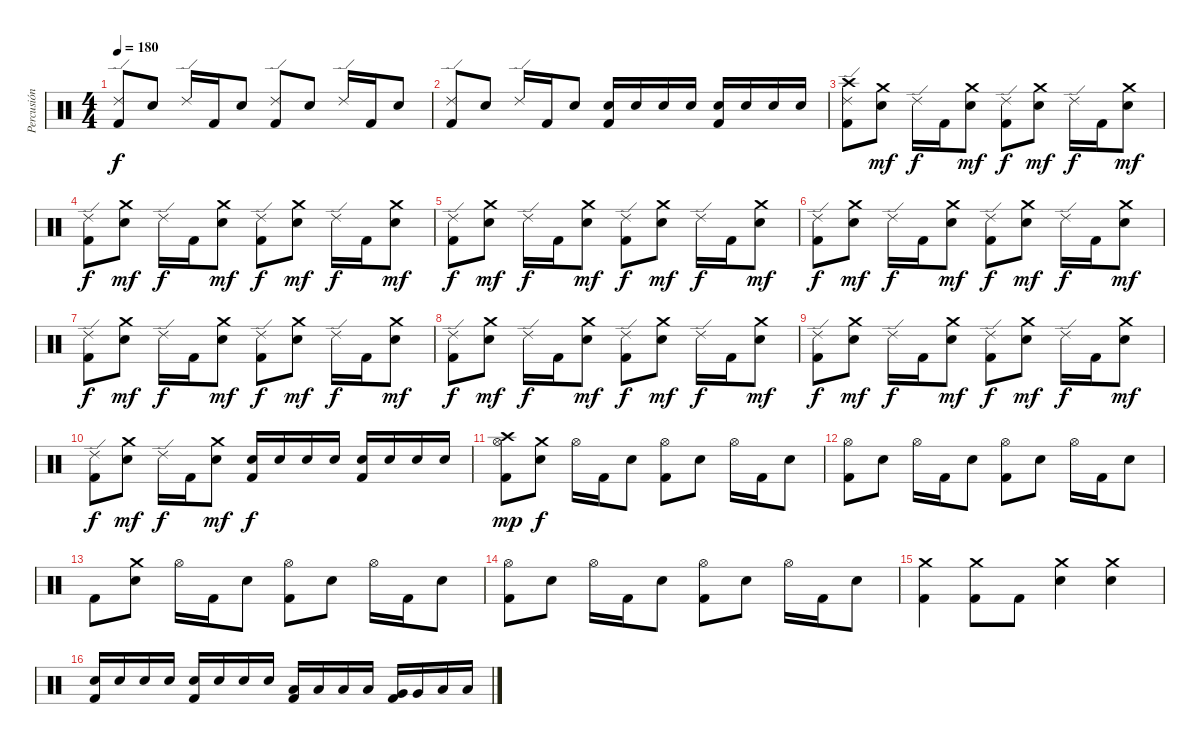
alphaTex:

\track ("Percusión" "Percusión") {instrument percussion}
\staff {score}
\articulation defaults
\ts (4 4)
\tempo 180
\clef neutral
\ks c
("Ride (edge) 2" "Kick (hit) 2").8{dy f} "Electric Snare (hit)".8 "Ride (edge) 2".16 "Kick (hit) 2".16 "Electric Snare (hit)".8 ("Ride (edge) 2" "Kick (hit) 2").8 "Electric Snare (hit)".8 "Ride (edge) 2".16 "Kick (hit) 2".16 "Electric Snare (hit)".8 |
("Ride (edge) 2" "Kick (hit) 2").8 "Electric Snare (hit)".8 "Ride (edge) 2".16 "Kick (hit) 2".16 "Electric Snare (hit)".8 ("Electric Snare (hit)" "Kick (hit) 2").16 "Electric Snare (hit)".16 "Electric Snare (hit)".16 "Electric Snare (hit)".16 ("Electric Snare (hit)" "Kick (hit) 2").16 "Electric Snare (hit)".16 "Electric Snare (hit)".16 "Electric Snare (hit)".16 |
("Crash high (hit)" "Ride (edge) 2" "Kick (hit) 2").8 ("Crash medium (hit)" "Electric Snare (hit)").8{dy mf} "Ride (edge) 2".16{dy f} "Kick (hit) 2".16 ("Crash medium (hit)" "Electric Snare (hit)").8{dy mf} ("Ride (edge) 2" "Kick (hit) 2").8{dy f} ("Crash medium (hit)" "Electric Snare (hit)").8{dy mf} "Ride (edge) 2".16{dy f} "Kick (hit) 2".16 ("Crash medium (hit)" "Electric Snare (hit)").8{dy mf} |
("Ride (edge) 2" "Kick (hit) 2").8{dy f} ("Crash medium (hit)" "Electric Snare (hit)").8{dy mf} "Ride (edge) 2".16{dy f} "Kick (hit) 2".16 ("Crash medium (hit)" "Electric Snare (hit)").8{dy mf} ("Ride (edge) 2" "Kick (hit) 2").8{dy f} ("Crash medium (hit)" "Electric Snare (hit)").8{dy mf} "Ride (edge) 2".16{dy f} "Kick (hit) 2".16 ("Crash medium (hit)" "Electric Snare (hit)").8{dy mf} |
("Ride (edge) 2" "Kick (hit) 2").8{dy f} ("Crash medium (hit)" "Electric Snare (hit)").8{dy mf} "Ride (edge) 2".16{dy f} "Kick (hit) 2".16 ("Crash medium (hit)" "Electric Snare (hit)").8{dy mf} ("Ride (edge) 2" "Kick (hit) 2").8{dy f} ("Crash medium (hit)" "Electric Snare (hit)").8{dy mf} "Ride (edge) 2".16{dy f} "Kick (hit) 2".16 ("Crash medium (hit)" "Electric Snare (hit)").8{dy mf} |
("Ride (edge) 2" "Kick (hit) 2").8{dy f} ("Crash medium (hit)" "Electric Snare (hit)").8{dy mf} "Ride (edge) 2".16{dy f} "Kick (hit) 2".16 ("Crash medium (hit)" "Electric Snare (hit)").8{dy mf} ("Ride (edge) 2" "Kick (hit) 2").8{dy f} ("Crash medium (hit)" "Electric Snare (hit)").8{dy mf} "Ride (edge) 2".16{dy f} "Kick (hit) 2".16 ("Crash medium (hit)" "Electric Snare (hit)").8{dy mf} |
("Ride (edge) 2" "Kick (hit) 2").8{dy f} ("Crash medium (hit)" "Electric Snare (hit)").8{dy mf} "Ride (edge) 2".16{dy f} "Kick (hit) 2".16 ("Crash medium (hit)" "Electric Snare (hit)").8{dy mf} ("Ride (edge) 2" "Kick (hit) 2").8{dy f} ("Crash medium (hit)" "Electric Snare (hit)").8{dy mf} "Ride (edge) 2".16{dy f} "Kick (hit) 2".16 ("Crash medium (hit)" "Electric Snare (hit)").8{dy mf} |
("Ride (edge) 2" "Kick (hit) 2").8{dy f} ("Crash medium (hit)" "Electric Snare (hit)").8{dy mf} "Ride (edge) 2".16{dy f} "Kick (hit) 2".16 ("Crash medium (hit)" "Electric Snare (hit)").8{dy mf} ("Ride (edge) 2" "Kick (hit) 2").8{dy f} ("Crash medium (hit)" "Electric Snare (hit)").8{dy mf} "Ride (edge) 2".16{dy f} "Kick (hit) 2".16 ("Crash medium (hit)" "Electric Snare (hit)").8{dy mf} |
("Ride (edge) 2" "Kick (hit) 2").8{dy f} ("Crash medium (hit)" "Electric Snare (hit)").8{dy mf} "Ride (edge) 2".16{dy f} "Kick (hit) 2".16 ("Crash medium (hit)" "Electric Snare (hit)").8{dy mf} ("Ride (edge) 2" "Kick (hit) 2").8{dy f} ("Crash medium (hit)" "Electric Snare (hit)").8{dy mf} "Ride (edge) 2".16{dy f} "Kick (hit) 2".16 ("Crash medium (hit)" "Electric Snare (hit)").8{dy mf} |
("Ride (edge) 2" "Kick (hit) 2").8{dy f} ("Crash medium (hit)" "Electric Snare (hit)").8{dy mf} "Ride (edge) 2".16{dy f} "Kick (hit) 2".16 ("Crash medium (hit)" "Electric Snare (hit)").8{dy mf} ("Electric Snare (hit)" "Kick (hit) 2").16{dy f} "Electric Snare (hit)".16 "Electric Snare (hit)".16 "Electric Snare (hit)".16 ("Electric Snare (hit)" "Kick (hit) 2").16 "Electric Snare (hit)".16 "Electric Snare (hit)".16 "Electric Snare (hit)".16 |
("Crash high (hit)" "Hi-Hat (open)" "Kick (hit) 2").8{dy mp} ("Crash medium (hit)" "Electric Snare (hit)").8{dy f} "Hi-Hat (open)".16 "Kick (hit) 2".16 "Electric Snare (hit)".8 ("Hi-Hat (open)" "Kick (hit) 2").8 "Electric Snare (hit)".8 "Hi-Hat (open)".16 "Kick (hit) 2".16 "Electric Snare (hit)".8 |
("Hi-Hat (open)" "Kick (hit) 2").8 "Electric Snare (hit)".8 "Hi-Hat (open)".16 "Kick (hit) 2".16 "Electric Snare (hit)".8 ("Hi-Hat (open)" "Kick (hit) 2").8 "Electric Snare (hit)".8 "Hi-Hat (open)".16 "Kick (hit) 2".16 "Electric Snare (hit)".8 |
"Kick (hit) 2".8 ("Crash medium (hit)" "Electric Snare (hit)").8 "Hi-Hat (open)".16 "Kick (hit) 2".16 "Electric Snare (hit)".8 ("Hi-Hat (open)" "Kick (hit) 2").8 "Electric Snare (hit)".8 "Hi-Hat (open)".16 "Kick (hit) 2".16 "Electric Snare (hit)".8 |
("Hi-Hat (open)" "Kick (hit) 2").8 "Electric Snare (hit)".8 "Hi-Hat (open)".16 "Kick (hit) 2".16 "Electric Snare (hit)".8 ("Hi-Hat (open)" "Kick (hit) 2").8 "Electric Snare (hit)".8 "Hi-Hat (open)".16 "Kick (hit) 2".16 "Electric Snare (hit)".8 |
("Crash medium (hit)" "Kick (hit) 2").4 ("Crash medium (hit)" "Kick (hit) 2").8 "Kick (hit) 2".8 ("Crash medium (hit)" "Electric Snare (hit)").4 ("Crash medium (hit)" "Electric Snare (hit)").4 |
("Electric Snare (hit)" "Kick (hit) 2").16 "Electric Snare (hit)".16 "Electric Snare (hit)".16 "Electric Snare (hit)".16 ("Electric Snare (hit)" "Kick (hit) 2").16 "Electric Snare (hit)".16 "Electric Snare (hit)".16 "Electric Snare (hit)".16 ("Low Tom (hit)" "Kick (hit) 2").16 "Low Tom (hit)".16 "Low Tom (hit)".16 "Low Tom (hit)".16 ("Very Low Tom (hit)" "Kick (hit) 2").16 "Very Low Tom (hit)".16 "Low Floor Tom (hit)".16 "Low Floor Tom (hit)".16
